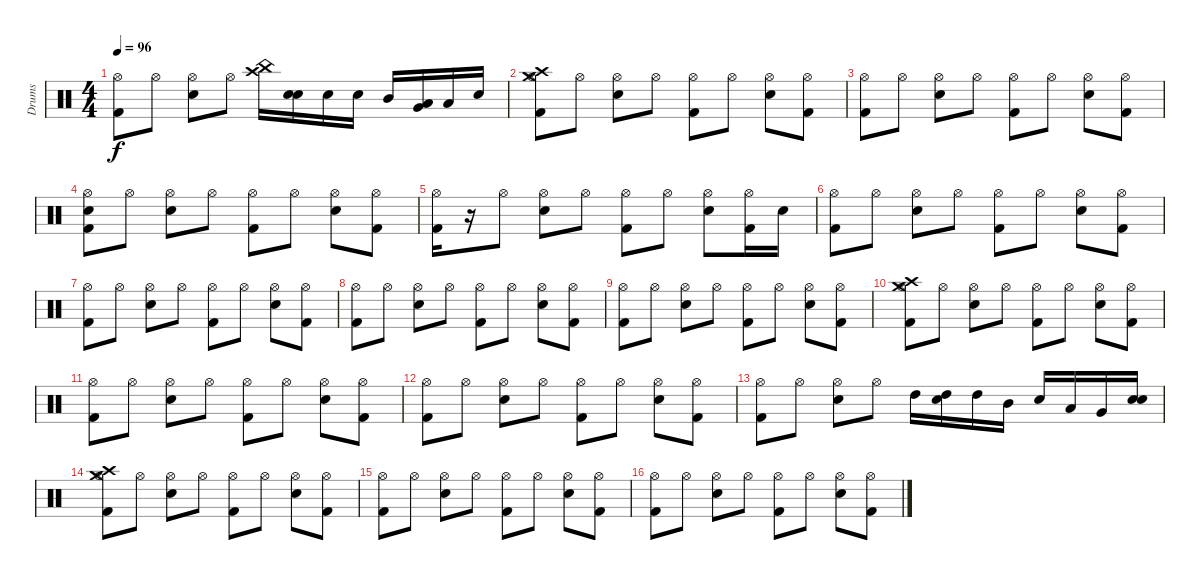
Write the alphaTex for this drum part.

\track ("Drums" "Drums") {instrument percussion}
\staff {score}
\articulation defaults
\ts (4 4)
\tempo 96
\clef neutral
\ks c
("Hi-Hat (open)" "Kick (hit) 2").8{dy f} "Hi-Hat (open)".8 ("Hi-Hat (open)" "Snare (hit) 2").8 "Hi-Hat (open)".8 ("China (hit)" "Crash high (hit)").16 ("Snare (hit)" "Snare (hit) 2").16 "Snare (hit) 2".16 "Snare (hit) 2".16 "Mid Tom (hit)".16 ("Low Tom (hit)" "Very Low Tom (hit)").16 "Low Tom (hit)".16 "Snare (hit) 2".16 |
("Crash medium (hit)" "Crash high (hit)" "Hi-Hat (open)" "Kick (hit) 2").8 "Hi-Hat (open)".8 ("Hi-Hat (open)" "Snare (hit) 2").8 "Hi-Hat (open)".8 ("Hi-Hat (open)" "Kick (hit) 2").8 "Hi-Hat (open)".8 ("Snare (hit) 2" "Hi-Hat (open)").8 ("Kick (hit) 2" "Hi-Hat (open)").8 |
("Hi-Hat (open)" "Kick (hit) 2").8 "Hi-Hat (open)".8 ("Hi-Hat (open)" "Snare (hit) 2").8 "Hi-Hat (open)".8 ("Hi-Hat (open)" "Kick (hit) 2").8 "Hi-Hat (open)".8 ("Snare (hit) 2" "Hi-Hat (open)").8 ("Kick (hit) 2" "Hi-Hat (open)").8 |
("Snare (hit)" "Hi-Hat (open)" "Kick (hit) 2").8 "Hi-Hat (open)".8 ("Hi-Hat (open)" "Snare (hit) 2").8 "Hi-Hat (open)".8 ("Hi-Hat (open)" "Kick (hit) 2").8 "Hi-Hat (open)".8 ("Snare (hit) 2" "Hi-Hat (open)").8 ("Kick (hit) 2" "Hi-Hat (open)").8 |
("Hi-Hat (open)" "Kick (hit) 2").16 r.16 "Hi-Hat (open)".8 ("Hi-Hat (open)" "Snare (hit) 2").8 "Hi-Hat (open)".8 ("Hi-Hat (open)" "Kick (hit) 2").8 "Hi-Hat (open)".8 ("Snare (hit) 2" "Hi-Hat (open)").8 ("Kick (hit) 2" "Hi-Hat (open)").16 "Snare (hit) 2".16 |
("Hi-Hat (open)" "Kick (hit) 2").8 "Hi-Hat (open)".8 ("Hi-Hat (open)" "Snare (hit) 2").8 "Hi-Hat (open)".8 ("Hi-Hat (open)" "Kick (hit) 2").8 "Hi-Hat (open)".8 ("Snare (hit) 2" "Hi-Hat (open)").8 ("Kick (hit) 2" "Hi-Hat (open)").8 |
("Hi-Hat (open)" "Kick (hit) 2").8 "Hi-Hat (open)".8 ("Hi-Hat (open)" "Snare (hit) 2").8 "Hi-Hat (open)".8 ("Hi-Hat (open)" "Kick (hit) 2").8 "Hi-Hat (open)".8 ("Snare (hit) 2" "Hi-Hat (open)").8 ("Kick (hit) 2" "Hi-Hat (open)").8 |
("Hi-Hat (open)" "Kick (hit) 2").8 "Hi-Hat (open)".8 ("Hi-Hat (open)" "Snare (hit) 2").8 "Hi-Hat (open)".8 ("Hi-Hat (open)" "Kick (hit) 2").8 "Hi-Hat (open)".8 ("Snare (hit) 2" "Hi-Hat (open)").8 ("Kick (hit) 2" "Hi-Hat (open)").8 |
("Hi-Hat (open)" "Kick (hit) 2").8 "Hi-Hat (open)".8 ("Hi-Hat (open)" "Snare (hit) 2").8 "Hi-Hat (open)".8 ("Hi-Hat (open)" "Kick (hit) 2").8 "Hi-Hat (open)".8 ("Snare (hit) 2" "Hi-Hat (open)").8 ("Kick (hit) 2" "Hi-Hat (open)").8 |
("Crash medium (hit)" "Crash high (hit)" "Hi-Hat (open)" "Kick (hit) 2").8 "Hi-Hat (open)".8 ("Hi-Hat (open)" "Snare (hit) 2").8 "Hi-Hat (open)".8 ("Hi-Hat (open)" "Kick (hit) 2").8 "Hi-Hat (open)".8 ("Snare (hit) 2" "Hi-Hat (open)").8 ("Kick (hit) 2" "Hi-Hat (open)").8 |
("Hi-Hat (open)" "Kick (hit) 2").8 "Hi-Hat (open)".8 ("Hi-Hat (open)" "Snare (hit) 2").8 "Hi-Hat (open)".8 ("Hi-Hat (open)" "Kick (hit) 2").8 "Hi-Hat (open)".8 ("Snare (hit) 2" "Hi-Hat (open)").8 ("Kick (hit) 2" "Hi-Hat (open)").8 |
("Hi-Hat (open)" "Kick (hit) 2").8 "Hi-Hat (open)".8 ("Hi-Hat (open)" "Snare (hit) 2").8 "Hi-Hat (open)".8 ("Hi-Hat (open)" "Kick (hit) 2").8 "Hi-Hat (open)".8 ("Snare (hit) 2" "Hi-Hat (open)").8 ("Kick (hit) 2" "Hi-Hat (open)").8 |
("Hi-Hat (open)" "Kick (hit) 2").8 "Hi-Hat (open)".8 ("Hi-Hat (open)" "Snare (hit) 2").8 "Hi-Hat (open)".8 "High Tom (hit)".16 ("Electric Snare (hit)" "High Tom (hit)").16 "High Tom (hit)".16 "Mid Tom (hit)".16 "Snare (hit) 2".16 "Low Tom (hit)".16 "Very Low Tom (hit)".16 ("Snare (hit) 2" "Electric Snare (hit)").16 |
("Crash high (hit)" "Crash medium (hit)" "Kick (hit) 2" "Hi-Hat (open)").8 "Hi-Hat (open)".8 ("Snare (hit) 2" "Hi-Hat (open)").8 "Hi-Hat (open)".8 ("Kick (hit) 2" "Hi-Hat (open)").8 "Hi-Hat (open)".8 ("Snare (hit) 2" "Hi-Hat (open)").8 ("Kick (hit) 2" "Hi-Hat (open)").8 |
("Hi-Hat (open)" "Kick (hit) 2").8 "Hi-Hat (open)".8 ("Hi-Hat (open)" "Snare (hit) 2").8 "Hi-Hat (open)".8 ("Hi-Hat (open)" "Kick (hit) 2").8 "Hi-Hat (open)".8 ("Snare (hit) 2" "Hi-Hat (open)").8 ("Kick (hit) 2" "Hi-Hat (open)").8 |
("Hi-Hat (open)" "Kick (hit) 2").8 "Hi-Hat (open)".8 ("Hi-Hat (open)" "Snare (hit) 2").8 "Hi-Hat (open)".8 ("Hi-Hat (open)" "Kick (hit) 2").8 "Hi-Hat (open)".8 ("Snare (hit) 2" "Hi-Hat (open)").8 ("Kick (hit) 2" "Hi-Hat (open)").8
